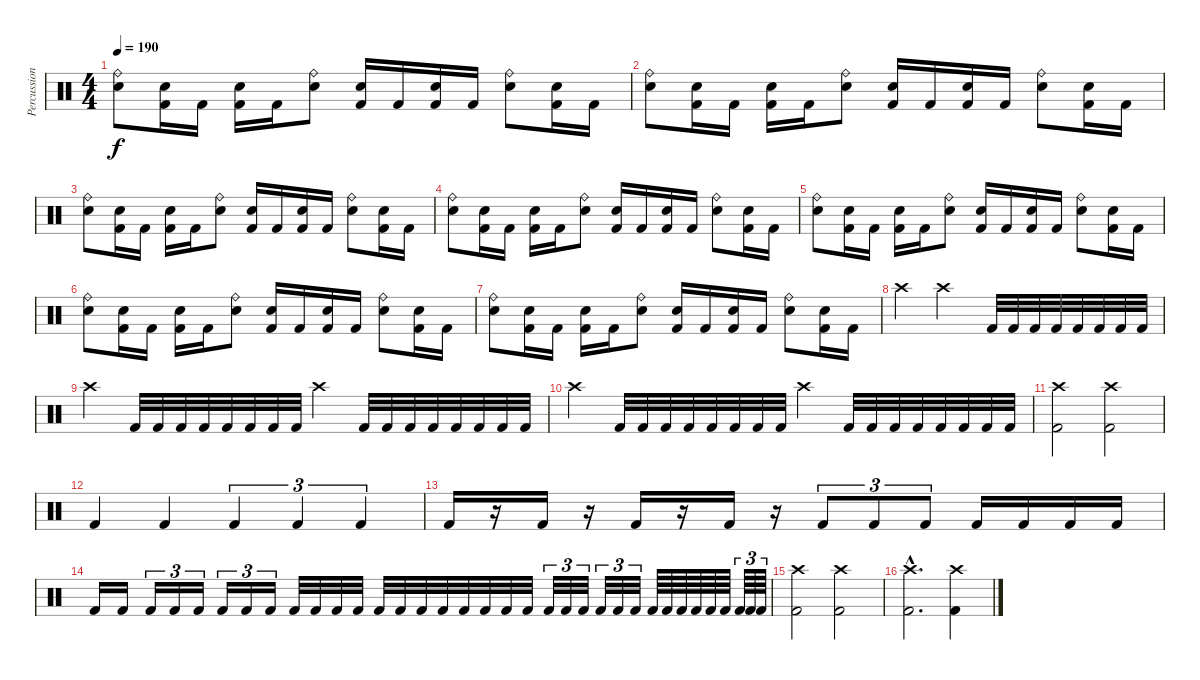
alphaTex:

\track ("Percussion" "Percussion") {instrument percussion}
\staff {score}
\articulation defaults
\ts (4 4)
\tempo 190
\clef neutral
\ks c
("Ride (bell)" "Snare (hit) 2").8{dy f} ("Snare (hit) 2" "Kick (hit) 2").16 "Kick (hit) 2".16 ("Snare (hit) 2" "Kick (hit) 2").16 "Kick (hit) 2".16 ("Ride (bell)" "Snare (hit) 2").8 ("Snare (hit) 2" "Kick (hit) 2").16 "Kick (hit) 2".16 ("Snare (hit) 2" "Kick (hit) 2").16 "Kick (hit) 2".16 ("Ride (bell)" "Snare (hit) 2").8 ("Snare (hit) 2" "Kick (hit) 2").16 "Kick (hit) 2".16 |
("Ride (bell)" "Snare (hit) 2").8 ("Snare (hit) 2" "Kick (hit) 2").16 "Kick (hit) 2".16 ("Snare (hit) 2" "Kick (hit) 2").16 "Kick (hit) 2".16 ("Ride (bell)" "Snare (hit) 2").8 ("Snare (hit) 2" "Kick (hit) 2").16 "Kick (hit) 2".16 ("Snare (hit) 2" "Kick (hit) 2").16 "Kick (hit) 2".16 ("Ride (bell)" "Snare (hit) 2").8 ("Snare (hit) 2" "Kick (hit) 2").16 "Kick (hit) 2".16 |
("Ride (bell)" "Snare (hit) 2").8 ("Snare (hit) 2" "Kick (hit) 2").16 "Kick (hit) 2".16 ("Snare (hit) 2" "Kick (hit) 2").16 "Kick (hit) 2".16 ("Ride (bell)" "Snare (hit) 2").8 ("Snare (hit) 2" "Kick (hit) 2").16 "Kick (hit) 2".16 ("Snare (hit) 2" "Kick (hit) 2").16 "Kick (hit) 2".16 ("Ride (bell)" "Snare (hit) 2").8 ("Snare (hit) 2" "Kick (hit) 2").16 "Kick (hit) 2".16 |
("Ride (bell)" "Snare (hit) 2").8 ("Snare (hit) 2" "Kick (hit) 2").16 "Kick (hit) 2".16 ("Snare (hit) 2" "Kick (hit) 2").16 "Kick (hit) 2".16 ("Ride (bell)" "Snare (hit) 2").8 ("Snare (hit) 2" "Kick (hit) 2").16 "Kick (hit) 2".16 ("Snare (hit) 2" "Kick (hit) 2").16 "Kick (hit) 2".16 ("Ride (bell)" "Snare (hit) 2").8 ("Snare (hit) 2" "Kick (hit) 2").16 "Kick (hit) 2".16 |
("Ride (bell)" "Snare (hit) 2").8 ("Snare (hit) 2" "Kick (hit) 2").16 "Kick (hit) 2".16 ("Snare (hit) 2" "Kick (hit) 2").16 "Kick (hit) 2".16 ("Ride (bell)" "Snare (hit) 2").8 ("Snare (hit) 2" "Kick (hit) 2").16 "Kick (hit) 2".16 ("Snare (hit) 2" "Kick (hit) 2").16 "Kick (hit) 2".16 ("Ride (bell)" "Snare (hit) 2").8 ("Snare (hit) 2" "Kick (hit) 2").16 "Kick (hit) 2".16 |
("Ride (bell)" "Snare (hit) 2").8 ("Snare (hit) 2" "Kick (hit) 2").16 "Kick (hit) 2".16 ("Snare (hit) 2" "Kick (hit) 2").16 "Kick (hit) 2".16 ("Ride (bell)" "Snare (hit) 2").8 ("Snare (hit) 2" "Kick (hit) 2").16 "Kick (hit) 2".16 ("Snare (hit) 2" "Kick (hit) 2").16 "Kick (hit) 2".16 ("Ride (bell)" "Snare (hit) 2").8 ("Snare (hit) 2" "Kick (hit) 2").16 "Kick (hit) 2".16 |
("Ride (bell)" "Snare (hit) 2").8 ("Snare (hit) 2" "Kick (hit) 2").16 "Kick (hit) 2".16 ("Snare (hit) 2" "Kick (hit) 2").16 "Kick (hit) 2".16 ("Ride (bell)" "Snare (hit) 2").8 ("Snare (hit) 2" "Kick (hit) 2").16 "Kick (hit) 2".16 ("Snare (hit) 2" "Kick (hit) 2").16 "Kick (hit) 2".16 ("Ride (bell)" "Snare (hit) 2").8 ("Snare (hit) 2" "Kick (hit) 2").16 "Kick (hit) 2".16 |
"Crash high (hit)".4 "Crash high (hit)".2 "Kick (hit) 2".32 "Kick (hit) 2".32 "Kick (hit) 2".32 "Kick (hit) 2".32 "Kick (hit) 2".32 "Kick (hit) 2".32 "Kick (hit) 2".32 "Kick (hit) 2".32 |
"Crash high (hit)".4 "Kick (hit) 2".32 "Kick (hit) 2".32 "Kick (hit) 2".32 "Kick (hit) 2".32 "Kick (hit) 2".32 "Kick (hit) 2".32 "Kick (hit) 2".32 "Kick (hit) 2".32 "Crash high (hit)".4 "Kick (hit) 2".32 "Kick (hit) 2".32 "Kick (hit) 2".32 "Kick (hit) 2".32 "Kick (hit) 2".32 "Kick (hit) 2".32 "Kick (hit) 2".32 "Kick (hit) 2".32 |
"Crash high (hit)".4 "Kick (hit) 2".32 "Kick (hit) 2".32 "Kick (hit) 2".32 "Kick (hit) 2".32 "Kick (hit) 2".32 "Kick (hit) 2".32 "Kick (hit) 2".32 "Kick (hit) 2".32 "Crash high (hit)".4 "Kick (hit) 2".32 "Kick (hit) 2".32 "Kick (hit) 2".32 "Kick (hit) 2".32 "Kick (hit) 2".32 "Kick (hit) 2".32 "Kick (hit) 2".32 "Kick (hit) 2".32 |
("Crash high (hit)" "Kick (hit) 2").2 ("Crash high (hit)" "Kick (hit) 2").2 |
"Kick (hit) 2".4 "Kick (hit) 2".4 "Kick (hit) 2".4{tu (3 2)} "Kick (hit) 2".4{tu (3 2)} "Kick (hit) 2".4{tu (3 2)} |
"Kick (hit) 2".16 r.16 "Kick (hit) 2".16 r.16 "Kick (hit) 2".16 r.16 "Kick (hit) 2".16 r.16 "Kick (hit) 2".8{tu (3 2)} "Kick (hit) 2".8{tu (3 2)} "Kick (hit) 2".8{tu (3 2)} "Kick (hit) 2".16 "Kick (hit) 2".16 "Kick (hit) 2".16 "Kick (hit) 2".16 |
"Kick (hit) 2".16 "Kick (hit) 2".16 "Kick (hit) 2".16{tu (3 2)} "Kick (hit) 2".16{tu (3 2)} "Kick (hit) 2".16{tu (3 2)} "Kick (hit) 2".16{tu (3 2)} "Kick (hit) 2".16{tu (3 2)} "Kick (hit) 2".16{tu (3 2)} "Kick (hit) 2".32 "Kick (hit) 2".32 "Kick (hit) 2".32 "Kick (hit) 2".32 "Kick (hit) 2".32 "Kick (hit) 2".32 "Kick (hit) 2".32 "Kick (hit) 2".32 "Kick (hit) 2".32 "Kick (hit) 2".32 "Kick (hit) 2".32 "Kick (hit) 2".32 "Kick (hit) 2".32{tu (3 2)} "Kick (hit) 2".32{tu (3 2)} "Kick (hit) 2".32{tu (3 2)} "Kick (hit) 2".32{tu (3 2)} "Kick (hit) 2".32{tu (3 2)} "Kick (hit) 2".32{tu (3 2)} "Kick (hit) 2".64 "Kick (hit) 2".64 "Kick (hit) 2".64 "Kick (hit) 2".64 "Kick (hit) 2".64 "Kick (hit) 2".64 "Kick (hit) 2".64{tu (3 2)} "Kick (hit) 2".64{tu (3 2)} "Kick (hit) 2".64{tu (3 2)} |
("Crash high (hit)" "Kick (hit) 2").2 ("Crash high (hit)" "Kick (hit) 2").2 |
("Crash high (hit)"{hac} "Kick (hit) 2"{hac}).2{d} ("Crash high (hit)" "Kick (hit) 2").4
